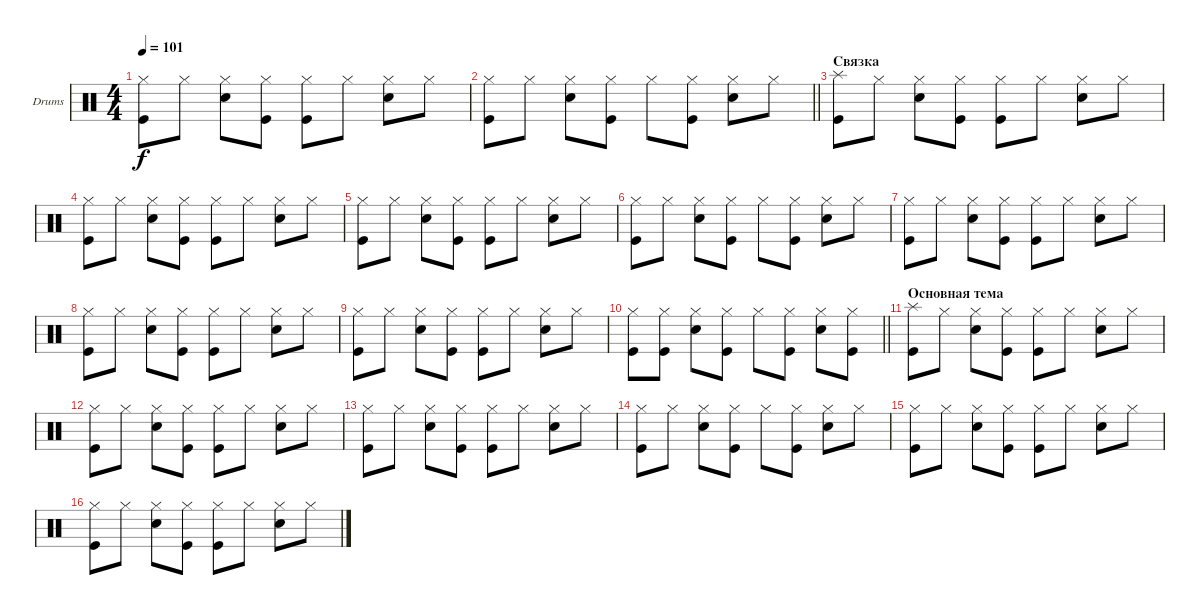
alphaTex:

\bracketExtendMode groupsimilarinstruments
\firstSystemTrackNameOrientation horizontal
\otherSystemsTrackNameOrientation horizontal
\track ("Drumkit" "Drums") {instrument percussion}
\staff {score}
\articulation defaults
\ts (4 4)
\tempo 101
\clef neutral
\ks c
("Hi-Hat (closed)" "Kick (hit)").8{dy f} "Hi-Hat (closed)".8 ("Hi-Hat (closed)" "Snare (hit) 2").8 ("Hi-Hat (closed)" "Kick (hit)").8 ("Hi-Hat (closed)" "Kick (hit)").8 "Hi-Hat (closed)".8 ("Hi-Hat (closed)" "Snare (hit) 2").8 "Hi-Hat (closed)".8 |
\barLineRight lightlight
("Hi-Hat (closed)" "Kick (hit)").8 "Hi-Hat (closed)".8 ("Hi-Hat (closed)" "Snare (hit) 2").8 ("Hi-Hat (closed)" "Kick (hit)").8 "Hi-Hat (closed)".8 ("Hi-Hat (closed)" "Kick (hit)").8 ("Hi-Hat (closed)" "Snare (hit) 2").8 "Hi-Hat (closed)".8 |
\section ("" "Связка")
("Splash (hit)" "Kick (hit)").8 "Hi-Hat (closed)".8 ("Hi-Hat (closed)" "Snare (hit) 2").8 ("Hi-Hat (closed)" "Kick (hit)").8 ("Hi-Hat (closed)" "Kick (hit)").8 "Hi-Hat (closed)".8 ("Hi-Hat (closed)" "Snare (hit) 2").8 "Hi-Hat (closed)".8 |
("Hi-Hat (closed)" "Kick (hit)").8 "Hi-Hat (closed)".8 ("Hi-Hat (closed)" "Snare (hit) 2").8 ("Hi-Hat (closed)" "Kick (hit)").8 ("Hi-Hat (closed)" "Kick (hit)").8 "Hi-Hat (closed)".8 ("Hi-Hat (closed)" "Snare (hit) 2").8 "Hi-Hat (closed)".8 |
("Hi-Hat (closed)" "Kick (hit)").8 "Hi-Hat (closed)".8 ("Hi-Hat (closed)" "Snare (hit) 2").8 ("Hi-Hat (closed)" "Kick (hit)").8 ("Hi-Hat (closed)" "Kick (hit)").8 "Hi-Hat (closed)".8 ("Hi-Hat (closed)" "Snare (hit) 2").8 "Hi-Hat (closed)".8 |
("Hi-Hat (closed)" "Kick (hit)").8 "Hi-Hat (closed)".8 ("Hi-Hat (closed)" "Snare (hit) 2").8 ("Hi-Hat (closed)" "Kick (hit)").8 "Hi-Hat (closed)".8 ("Hi-Hat (closed)" "Kick (hit)").8 ("Hi-Hat (closed)" "Snare (hit) 2").8 "Hi-Hat (closed)".8 |
("Hi-Hat (closed)" "Kick (hit)").8 "Hi-Hat (closed)".8 ("Hi-Hat (closed)" "Snare (hit) 2").8 ("Hi-Hat (closed)" "Kick (hit)").8 ("Hi-Hat (closed)" "Kick (hit)").8 "Hi-Hat (closed)".8 ("Hi-Hat (closed)" "Snare (hit) 2").8 "Hi-Hat (closed)".8 |
("Hi-Hat (closed)" "Kick (hit)").8 "Hi-Hat (closed)".8 ("Hi-Hat (closed)" "Snare (hit) 2").8 ("Hi-Hat (closed)" "Kick (hit)").8 ("Hi-Hat (closed)" "Kick (hit)").8 "Hi-Hat (closed)".8 ("Hi-Hat (closed)" "Snare (hit) 2").8 "Hi-Hat (closed)".8 |
("Hi-Hat (closed)" "Kick (hit)").8 "Hi-Hat (closed)".8 ("Hi-Hat (closed)" "Snare (hit) 2").8 ("Hi-Hat (closed)" "Kick (hit)").8 ("Hi-Hat (closed)" "Kick (hit)").8 "Hi-Hat (closed)".8 ("Hi-Hat (closed)" "Snare (hit) 2").8 "Hi-Hat (closed)".8 |
\barLineRight lightlight
("Hi-Hat (closed)" "Kick (hit)").8 ("Hi-Hat (closed)" "Kick (hit)").8 ("Hi-Hat (closed)" "Snare (hit) 2").8 ("Hi-Hat (closed)" "Kick (hit)").8 "Hi-Hat (closed)".8 ("Hi-Hat (closed)" "Kick (hit)").8 ("Hi-Hat (closed)" "Snare (hit) 2").8 ("Hi-Hat (closed)" "Kick (hit)").8 |
\section ("" "Основная тема")
("Splash (hit)" "Kick (hit)").8 "Hi-Hat (closed)".8 ("Hi-Hat (closed)" "Snare (hit) 2").8 ("Hi-Hat (closed)" "Kick (hit)").8 ("Hi-Hat (closed)" "Kick (hit)").8 "Hi-Hat (closed)".8 ("Hi-Hat (closed)" "Snare (hit) 2").8 "Hi-Hat (closed)".8 |
("Hi-Hat (closed)" "Kick (hit)").8 "Hi-Hat (closed)".8 ("Hi-Hat (closed)" "Snare (hit) 2").8 ("Hi-Hat (closed)" "Kick (hit)").8 ("Hi-Hat (closed)" "Kick (hit)").8 "Hi-Hat (closed)".8 ("Hi-Hat (closed)" "Snare (hit) 2").8 "Hi-Hat (closed)".8 |
("Hi-Hat (closed)" "Kick (hit)").8 "Hi-Hat (closed)".8 ("Hi-Hat (closed)" "Snare (hit) 2").8 ("Hi-Hat (closed)" "Kick (hit)").8 ("Hi-Hat (closed)" "Kick (hit)").8 "Hi-Hat (closed)".8 ("Hi-Hat (closed)" "Snare (hit) 2").8 "Hi-Hat (closed)".8 |
("Hi-Hat (closed)" "Kick (hit)").8 "Hi-Hat (closed)".8 ("Hi-Hat (closed)" "Snare (hit) 2").8 ("Hi-Hat (closed)" "Kick (hit)").8 "Hi-Hat (closed)".8 ("Hi-Hat (closed)" "Kick (hit)").8 ("Hi-Hat (closed)" "Snare (hit) 2").8 "Hi-Hat (closed)".8 |
("Hi-Hat (closed)" "Kick (hit)").8 "Hi-Hat (closed)".8 ("Hi-Hat (closed)" "Snare (hit) 2").8 ("Hi-Hat (closed)" "Kick (hit)").8 ("Hi-Hat (closed)" "Kick (hit)").8 "Hi-Hat (closed)".8 ("Hi-Hat (closed)" "Snare (hit) 2").8 "Hi-Hat (closed)".8 |
("Hi-Hat (closed)" "Kick (hit)").8 "Hi-Hat (closed)".8 ("Hi-Hat (closed)" "Snare (hit) 2").8 ("Hi-Hat (closed)" "Kick (hit)").8 ("Hi-Hat (closed)" "Kick (hit)").8 "Hi-Hat (closed)".8 ("Hi-Hat (closed)" "Snare (hit) 2").8 "Hi-Hat (closed)".8
